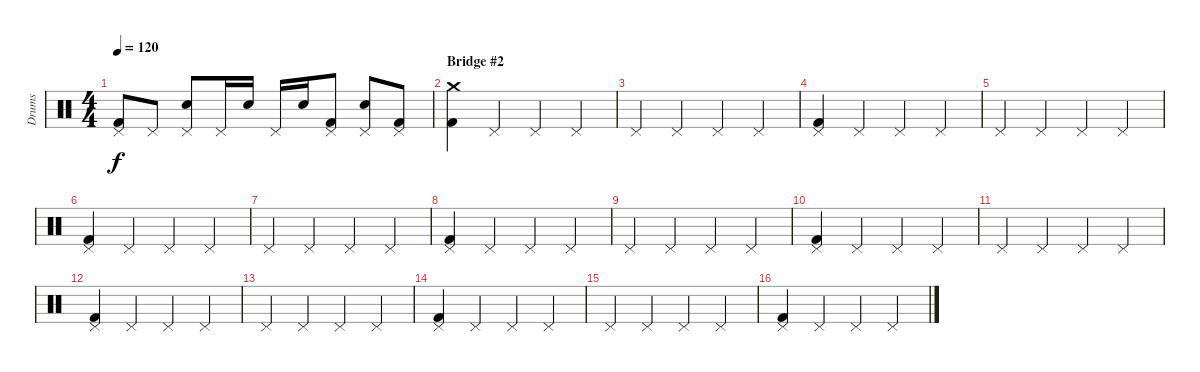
\track ("Drums" "Drums") {instrument percussion}
\staff {score}
\articulation defaults
\ts (4 4)
\tempo 120
\clef neutral
\ks c
("Pedal Hi-Hat (hit)" "Kick (hit) 2").8{dy f} "Pedal Hi-Hat (hit)".8 ("Pedal Hi-Hat (hit)" "Electric Snare (hit)").8 "Pedal Hi-Hat (hit)".16 "Electric Snare (hit)".16 "Pedal Hi-Hat (hit)".16 "Electric Snare (hit)".16 ("Pedal Hi-Hat (hit)" "Kick (hit) 2").8 ("Pedal Hi-Hat (hit)" "Electric Snare (hit)").8 ("Pedal Hi-Hat (hit)" "Kick (hit) 2").8 |
\section ("" "Bridge #2")
("Crash medium (hit)" "Kick (hit) 2").4 "Pedal Hi-Hat (hit)".4 "Pedal Hi-Hat (hit)".4 "Pedal Hi-Hat (hit)".4 |
"Pedal Hi-Hat (hit)".4 "Pedal Hi-Hat (hit)".4 "Pedal Hi-Hat (hit)".4 "Pedal Hi-Hat (hit)".4 |
("Pedal Hi-Hat (hit)" "Kick (hit) 2").4 "Pedal Hi-Hat (hit)".4 "Pedal Hi-Hat (hit)".4 "Pedal Hi-Hat (hit)".4 |
"Pedal Hi-Hat (hit)".4 "Pedal Hi-Hat (hit)".4 "Pedal Hi-Hat (hit)".4 "Pedal Hi-Hat (hit)".4 |
("Pedal Hi-Hat (hit)" "Kick (hit) 2").4 "Pedal Hi-Hat (hit)".4 "Pedal Hi-Hat (hit)".4 "Pedal Hi-Hat (hit)".4 |
"Pedal Hi-Hat (hit)".4 "Pedal Hi-Hat (hit)".4 "Pedal Hi-Hat (hit)".4 "Pedal Hi-Hat (hit)".4 |
("Pedal Hi-Hat (hit)" "Kick (hit) 2").4 "Pedal Hi-Hat (hit)".4 "Pedal Hi-Hat (hit)".4 "Pedal Hi-Hat (hit)".4 |
"Pedal Hi-Hat (hit)".4 "Pedal Hi-Hat (hit)".4 "Pedal Hi-Hat (hit)".4 "Pedal Hi-Hat (hit)".4 |
("Pedal Hi-Hat (hit)" "Kick (hit) 2").4 "Pedal Hi-Hat (hit)".4 "Pedal Hi-Hat (hit)".4 "Pedal Hi-Hat (hit)".4 |
"Pedal Hi-Hat (hit)".4 "Pedal Hi-Hat (hit)".4 "Pedal Hi-Hat (hit)".4 "Pedal Hi-Hat (hit)".4 |
("Pedal Hi-Hat (hit)" "Kick (hit) 2").4 "Pedal Hi-Hat (hit)".4 "Pedal Hi-Hat (hit)".4 "Pedal Hi-Hat (hit)".4 |
"Pedal Hi-Hat (hit)".4 "Pedal Hi-Hat (hit)".4 "Pedal Hi-Hat (hit)".4 "Pedal Hi-Hat (hit)".4 |
("Pedal Hi-Hat (hit)" "Kick (hit) 2").4 "Pedal Hi-Hat (hit)".4 "Pedal Hi-Hat (hit)".4 "Pedal Hi-Hat (hit)".4 |
"Pedal Hi-Hat (hit)".4 "Pedal Hi-Hat (hit)".4 "Pedal Hi-Hat (hit)".4 "Pedal Hi-Hat (hit)".4 |
("Pedal Hi-Hat (hit)" "Kick (hit) 2").4 "Pedal Hi-Hat (hit)".4 "Pedal Hi-Hat (hit)".4 "Pedal Hi-Hat (hit)".4
